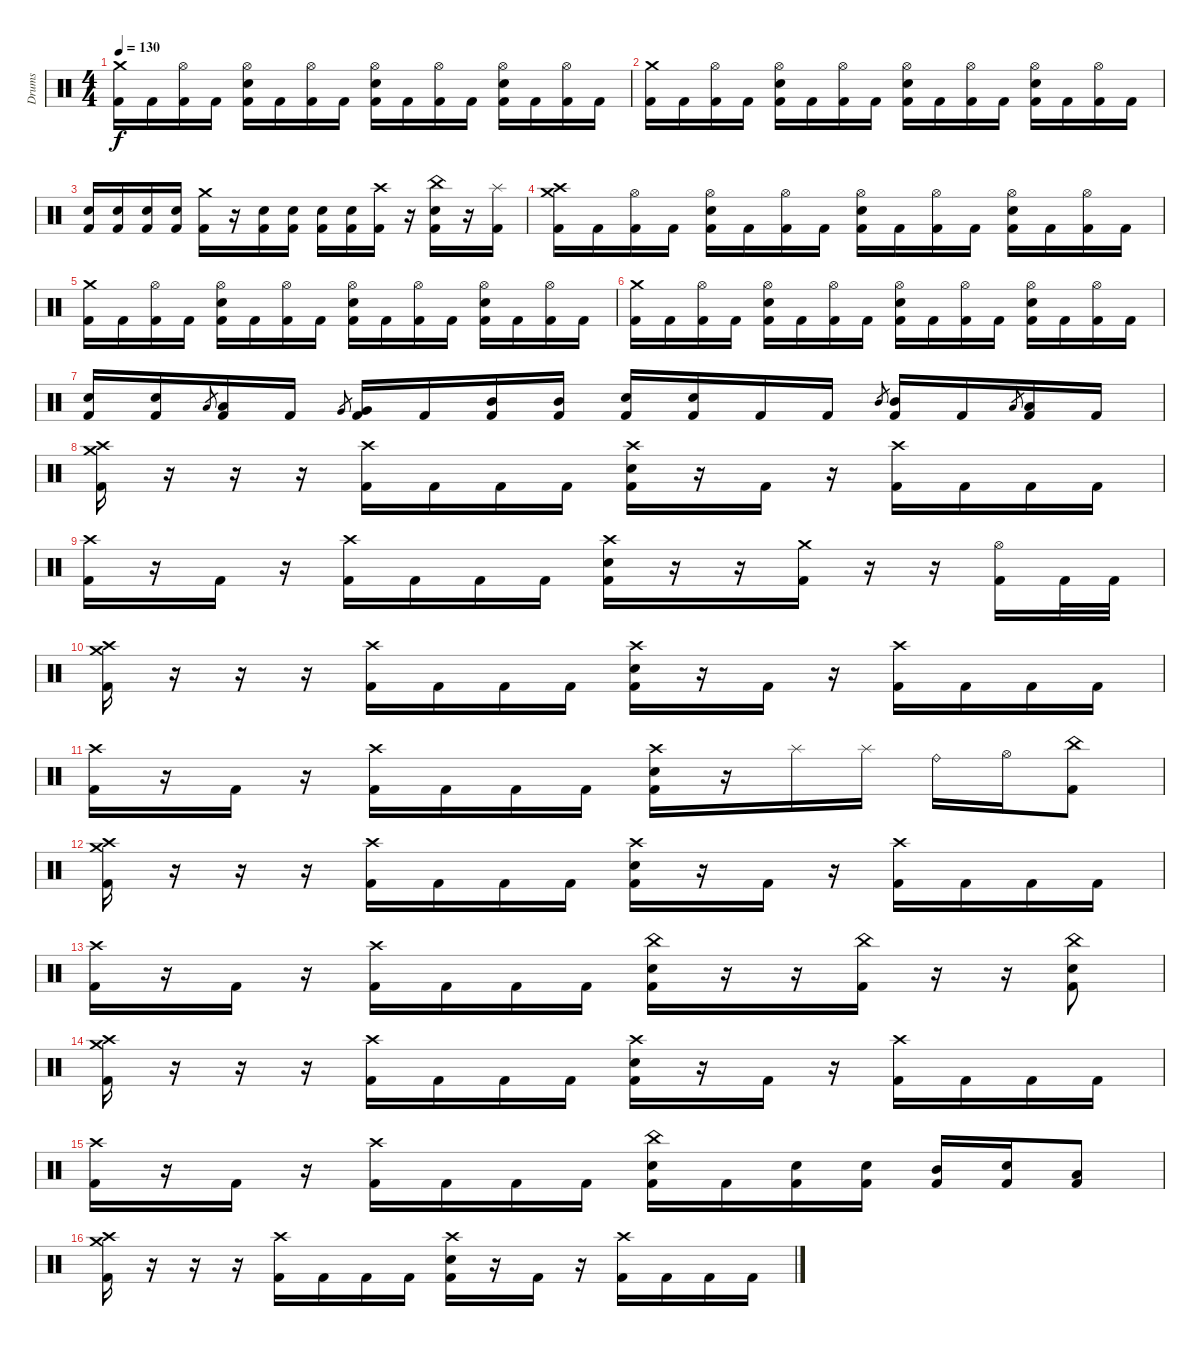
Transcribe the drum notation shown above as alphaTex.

\track ("Drums" "Drums") {instrument percussion}
\staff {score}
\articulation defaults
\ts (4 4)
\tempo 130
\clef neutral
\ks c
("Crash medium (hit)" "Kick (hit) 2").16{dy f} "Kick (hit) 2".16 ("Hi-Hat (open)" "Kick (hit) 2").16 "Kick (hit) 2".16 ("Hi-Hat (open)" "Electric Snare (hit)" "Kick (hit) 2").16 "Kick (hit) 2".16 ("Hi-Hat (open)" "Kick (hit) 2").16 "Kick (hit) 2".16 ("Hi-Hat (open)" "Electric Snare (hit)" "Kick (hit) 2").16 "Kick (hit) 2".16 ("Hi-Hat (open)" "Kick (hit) 2").16 "Kick (hit) 2".16 ("Hi-Hat (open)" "Electric Snare (hit)" "Kick (hit) 2").16 "Kick (hit) 2".16 ("Hi-Hat (open)" "Kick (hit) 2").16 "Kick (hit) 2".16 |
("Crash medium (hit)" "Kick (hit) 2").16 "Kick (hit) 2".16 ("Hi-Hat (open)" "Kick (hit) 2").16 "Kick (hit) 2".16 ("Hi-Hat (open)" "Electric Snare (hit)" "Kick (hit) 2").16 "Kick (hit) 2".16 ("Hi-Hat (open)" "Kick (hit) 2").16 "Kick (hit) 2".16 ("Hi-Hat (open)" "Electric Snare (hit)" "Kick (hit) 2").16 "Kick (hit) 2".16 ("Hi-Hat (open)" "Kick (hit) 2").16 "Kick (hit) 2".16 ("Hi-Hat (open)" "Electric Snare (hit)" "Kick (hit) 2").16 "Kick (hit) 2".16 ("Hi-Hat (open)" "Kick (hit) 2").16 "Kick (hit) 2".16 |
("Electric Snare (hit)" "Kick (hit) 2").16 ("Electric Snare (hit)" "Kick (hit) 2").16 ("Electric Snare (hit)" "Kick (hit) 2").16 ("Electric Snare (hit)" "Kick (hit) 2").16 ("Crash medium (hit)" "Kick (hit) 2").16 r.16 ("Electric Snare (hit)" "Kick (hit) 2").16 ("Electric Snare (hit)" "Kick (hit) 2").16 ("Electric Snare (hit)" "Kick (hit) 2").16 ("Electric Snare (hit)" "Kick (hit) 2").16 ("Crash high (hit)" "Kick (hit) 2").16 r.16 ("China (hit)" "Electric Snare (hit)" "Kick (hit) 2").16 r.16 ("Splash (hit)" "Kick (hit) 2").16 |
("Crash high (hit)" "Crash medium (hit)" "Kick (hit) 2").16 "Kick (hit) 2".16 ("Hi-Hat (open)" "Kick (hit) 2").16 "Kick (hit) 2".16 ("Hi-Hat (open)" "Electric Snare (hit)" "Kick (hit) 2").16 "Kick (hit) 2".16 ("Hi-Hat (open)" "Kick (hit) 2").16 "Kick (hit) 2".16 ("Hi-Hat (open)" "Electric Snare (hit)" "Kick (hit) 2").16 "Kick (hit) 2".16 ("Hi-Hat (open)" "Kick (hit) 2").16 "Kick (hit) 2".16 ("Hi-Hat (open)" "Electric Snare (hit)" "Kick (hit) 2").16 "Kick (hit) 2".16 ("Hi-Hat (open)" "Kick (hit) 2").16 "Kick (hit) 2".16 |
("Crash medium (hit)" "Kick (hit) 2").16 "Kick (hit) 2".16 ("Hi-Hat (open)" "Kick (hit) 2").16 "Kick (hit) 2".16 ("Hi-Hat (open)" "Electric Snare (hit)" "Kick (hit) 2").16 "Kick (hit) 2".16 ("Hi-Hat (open)" "Kick (hit) 2").16 "Kick (hit) 2".16 ("Hi-Hat (open)" "Electric Snare (hit)" "Kick (hit) 2").16 "Kick (hit) 2".16 ("Hi-Hat (open)" "Kick (hit) 2").16 "Kick (hit) 2".16 ("Hi-Hat (open)" "Electric Snare (hit)" "Kick (hit) 2").16 "Kick (hit) 2".16 ("Hi-Hat (open)" "Kick (hit) 2").16 "Kick (hit) 2".16 |
("Crash medium (hit)" "Kick (hit) 2").16 "Kick (hit) 2".16 ("Hi-Hat (open)" "Kick (hit) 2").16 "Kick (hit) 2".16 ("Hi-Hat (open)" "Electric Snare (hit)" "Kick (hit) 2").16 "Kick (hit) 2".16 ("Hi-Hat (open)" "Kick (hit) 2").16 "Kick (hit) 2".16 ("Hi-Hat (open)" "Electric Snare (hit)" "Kick (hit) 2").16 "Kick (hit) 2".16 ("Hi-Hat (open)" "Kick (hit) 2").16 "Kick (hit) 2".16 ("Hi-Hat (open)" "Electric Snare (hit)" "Kick (hit) 2").16 "Kick (hit) 2".16 ("Hi-Hat (open)" "Kick (hit) 2").16 "Kick (hit) 2".16 |
("Electric Snare (hit)" "Kick (hit) 2").16 ("Electric Snare (hit)" "Kick (hit) 2").16 "Low Tom (hit)".8{gr} ("Low Tom (hit)" "Kick (hit) 2").16 "Kick (hit) 2".16 "Very Low Tom (hit)".8{gr} ("Very Low Tom (hit)" "Kick (hit) 2").16 "Kick (hit) 2".16 ("Mid Tom (hit)" "Kick (hit) 2").16 ("Mid Tom (hit)" "Kick (hit) 2").16 ("Electric Snare (hit)" "Kick (hit) 2").16 ("Electric Snare (hit)" "Kick (hit) 2").16 "Kick (hit) 2".16 "Kick (hit) 2".16 "Mid Tom (hit)".8{gr} ("Mid Tom (hit)" "Kick (hit) 2").16 "Kick (hit) 2".16 "Low Tom (hit)".8{gr} ("Low Tom (hit)" "Kick (hit) 2").16 "Kick (hit) 2".16 |
("Crash high (hit)" "Crash medium (hit)" "Kick (hit) 2").16 r.16 r.16 r.16 ("Crash high (hit)" "Kick (hit) 2").16 "Kick (hit) 2".16 "Kick (hit) 2".16 "Kick (hit) 2".16 ("Crash high (hit)" "Electric Snare (hit)" "Kick (hit) 2").16 r.16 "Kick (hit) 2".16 r.16 ("Crash high (hit)" "Kick (hit) 2").16 "Kick (hit) 2".16 "Kick (hit) 2".16 "Kick (hit) 2".16 |
("Crash high (hit)" "Kick (hit) 2").16 r.16 "Kick (hit) 2".16 r.16 ("Crash high (hit)" "Kick (hit) 2").16 "Kick (hit) 2".16 "Kick (hit) 2".16 "Kick (hit) 2".16 ("Crash high (hit)" "Electric Snare (hit)" "Kick (hit) 2").16 r.16 r.16 ("Crash medium (hit)" "Kick (hit) 2").16 r.16 r.16 ("Hi-Hat (open)" "Kick (hit) 2").16 "Kick (hit) 2".32 "Kick (hit) 2".32 |
("Crash high (hit)" "Crash medium (hit)" "Kick (hit) 2").16 r.16 r.16 r.16 ("Crash high (hit)" "Kick (hit) 2").16 "Kick (hit) 2".16 "Kick (hit) 2".16 "Kick (hit) 2".16 ("Crash high (hit)" "Electric Snare (hit)" "Kick (hit) 2").16 r.16 "Kick (hit) 2".16 r.16 ("Crash high (hit)" "Kick (hit) 2").16 "Kick (hit) 2".16 "Kick (hit) 2".16 "Kick (hit) 2".16 |
("Crash high (hit)" "Kick (hit) 2").16 r.16 "Kick (hit) 2".16 r.16 ("Crash high (hit)" "Kick (hit) 2").16 "Kick (hit) 2".16 "Kick (hit) 2".16 "Kick (hit) 2".16 ("Crash high (hit)" "Electric Snare (hit)" "Kick (hit) 2").16 r.16 "Splash (hit)".16 "Splash (hit)".16 "Ride (bell)".16 "Hi-Hat (open)".16 ("China (hit)" "Kick (hit) 2").8 |
("Crash high (hit)" "Crash medium (hit)" "Kick (hit) 2").16 r.16 r.16 r.16 ("Crash high (hit)" "Kick (hit) 2").16 "Kick (hit) 2".16 "Kick (hit) 2".16 "Kick (hit) 2".16 ("Crash high (hit)" "Electric Snare (hit)" "Kick (hit) 2").16 r.16 "Kick (hit) 2".16 r.16 ("Crash high (hit)" "Kick (hit) 2").16 "Kick (hit) 2".16 "Kick (hit) 2".16 "Kick (hit) 2".16 |
("Crash high (hit)" "Kick (hit) 2").16 r.16 "Kick (hit) 2".16 r.16 ("Crash high (hit)" "Kick (hit) 2").16 "Kick (hit) 2".16 "Kick (hit) 2".16 "Kick (hit) 2".16 ("China (hit)" "Electric Snare (hit)" "Kick (hit) 2").16 r.16 r.16 ("China (hit)" "Kick (hit) 2").16 r.16 r.16 ("China (hit)" "Electric Snare (hit)" "Kick (hit) 2").8 |
("Crash high (hit)" "Crash medium (hit)" "Kick (hit) 2").16 r.16 r.16 r.16 ("Crash high (hit)" "Kick (hit) 2").16 "Kick (hit) 2".16 "Kick (hit) 2".16 "Kick (hit) 2".16 ("Crash high (hit)" "Electric Snare (hit)" "Kick (hit) 2").16 r.16 "Kick (hit) 2".16 r.16 ("Crash high (hit)" "Kick (hit) 2").16 "Kick (hit) 2".16 "Kick (hit) 2".16 "Kick (hit) 2".16 |
("Crash high (hit)" "Kick (hit) 2").16 r.16 "Kick (hit) 2".16 r.16 ("Crash high (hit)" "Kick (hit) 2").16 "Kick (hit) 2".16 "Kick (hit) 2".16 "Kick (hit) 2".16 ("China (hit)" "Electric Snare (hit)" "Kick (hit) 2").16 "Kick (hit) 2".16 ("Electric Snare (hit)" "Kick (hit) 2").16 ("Electric Snare (hit)" "Kick (hit) 2").16 ("Mid Tom (hit)" "Kick (hit) 2").16 ("Electric Snare (hit)" "Kick (hit) 2").16 ("Low Tom (hit)" "Kick (hit) 2").8 |
("Crash high (hit)" "Crash medium (hit)" "Kick (hit) 2").16 r.16 r.16 r.16 ("Crash high (hit)" "Kick (hit) 2").16 "Kick (hit) 2".16 "Kick (hit) 2".16 "Kick (hit) 2".16 ("Crash high (hit)" "Electric Snare (hit)" "Kick (hit) 2").16 r.16 "Kick (hit) 2".16 r.16 ("Crash high (hit)" "Kick (hit) 2").16 "Kick (hit) 2".16 "Kick (hit) 2".16 "Kick (hit) 2".16
